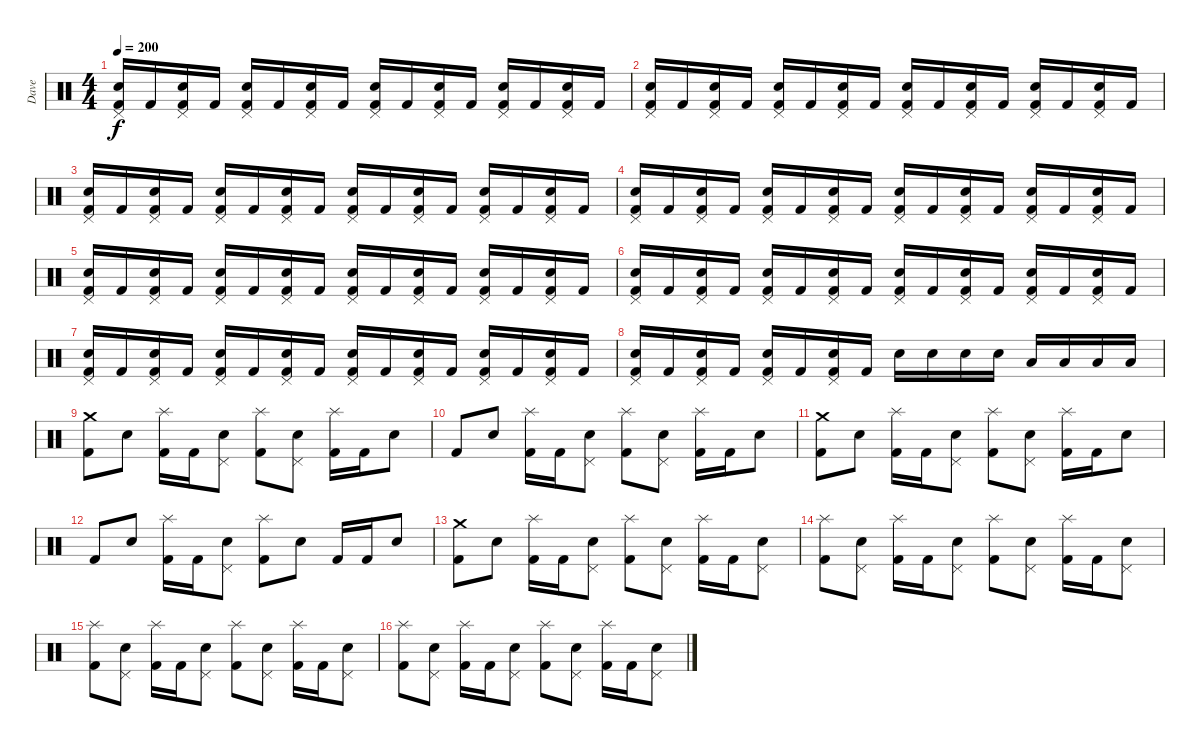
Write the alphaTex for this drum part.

\track ("Dave" "Dave") {instrument percussion}
\staff {score}
\articulation defaults
\ts (4 4)
\tempo 200
\clef neutral
\ks c
("Snare (hit) 2" "Pedal Hi-Hat (hit)" "Kick (hit) 2").16{dy f} "Kick (hit) 2".16 ("Snare (hit) 2" "Pedal Hi-Hat (hit)" "Kick (hit) 2").16 "Kick (hit) 2".16 ("Snare (hit) 2" "Pedal Hi-Hat (hit)" "Kick (hit) 2").16 "Kick (hit) 2".16 ("Snare (hit) 2" "Pedal Hi-Hat (hit)" "Kick (hit) 2").16 "Kick (hit) 2".16 ("Snare (hit) 2" "Pedal Hi-Hat (hit)" "Kick (hit) 2").16 "Kick (hit) 2".16 ("Snare (hit) 2" "Pedal Hi-Hat (hit)" "Kick (hit) 2").16 "Kick (hit) 2".16 ("Snare (hit) 2" "Pedal Hi-Hat (hit)" "Kick (hit) 2").16 "Kick (hit) 2".16 ("Snare (hit) 2" "Pedal Hi-Hat (hit)" "Kick (hit) 2").16 "Kick (hit) 2".16 |
("Snare (hit) 2" "Pedal Hi-Hat (hit)" "Kick (hit) 2").16 "Kick (hit) 2".16 ("Snare (hit) 2" "Pedal Hi-Hat (hit)" "Kick (hit) 2").16 "Kick (hit) 2".16 ("Snare (hit) 2" "Pedal Hi-Hat (hit)" "Kick (hit) 2").16 "Kick (hit) 2".16 ("Snare (hit) 2" "Pedal Hi-Hat (hit)" "Kick (hit) 2").16 "Kick (hit) 2".16 ("Snare (hit) 2" "Pedal Hi-Hat (hit)" "Kick (hit) 2").16 "Kick (hit) 2".16 ("Snare (hit) 2" "Pedal Hi-Hat (hit)" "Kick (hit) 2").16 "Kick (hit) 2".16 ("Snare (hit) 2" "Pedal Hi-Hat (hit)" "Kick (hit) 2").16 "Kick (hit) 2".16 ("Snare (hit) 2" "Pedal Hi-Hat (hit)" "Kick (hit) 2").16 "Kick (hit) 2".16 |
("Snare (hit) 2" "Pedal Hi-Hat (hit)" "Kick (hit) 2").16 "Kick (hit) 2".16 ("Snare (hit) 2" "Pedal Hi-Hat (hit)" "Kick (hit) 2").16 "Kick (hit) 2".16 ("Snare (hit) 2" "Pedal Hi-Hat (hit)" "Kick (hit) 2").16 "Kick (hit) 2".16 ("Snare (hit) 2" "Pedal Hi-Hat (hit)" "Kick (hit) 2").16 "Kick (hit) 2".16 ("Snare (hit) 2" "Pedal Hi-Hat (hit)" "Kick (hit) 2").16 "Kick (hit) 2".16 ("Snare (hit) 2" "Pedal Hi-Hat (hit)" "Kick (hit) 2").16 "Kick (hit) 2".16 ("Snare (hit) 2" "Pedal Hi-Hat (hit)" "Kick (hit) 2").16 "Kick (hit) 2".16 ("Snare (hit) 2" "Pedal Hi-Hat (hit)" "Kick (hit) 2").16 "Kick (hit) 2".16 |
("Snare (hit) 2" "Pedal Hi-Hat (hit)" "Kick (hit) 2").16 "Kick (hit) 2".16 ("Snare (hit) 2" "Pedal Hi-Hat (hit)" "Kick (hit) 2").16 "Kick (hit) 2".16 ("Snare (hit) 2" "Pedal Hi-Hat (hit)" "Kick (hit) 2").16 "Kick (hit) 2".16 ("Snare (hit) 2" "Pedal Hi-Hat (hit)" "Kick (hit) 2").16 "Kick (hit) 2".16 ("Snare (hit) 2" "Pedal Hi-Hat (hit)" "Kick (hit) 2").16 "Kick (hit) 2".16 ("Snare (hit) 2" "Pedal Hi-Hat (hit)" "Kick (hit) 2").16 "Kick (hit) 2".16 ("Snare (hit) 2" "Pedal Hi-Hat (hit)" "Kick (hit) 2").16 "Kick (hit) 2".16 ("Snare (hit) 2" "Pedal Hi-Hat (hit)" "Kick (hit) 2").16 "Kick (hit) 2".16 |
("Snare (hit) 2" "Pedal Hi-Hat (hit)" "Kick (hit) 2").16 "Kick (hit) 2".16 ("Snare (hit) 2" "Pedal Hi-Hat (hit)" "Kick (hit) 2").16 "Kick (hit) 2".16 ("Snare (hit) 2" "Pedal Hi-Hat (hit)" "Kick (hit) 2").16 "Kick (hit) 2".16 ("Snare (hit) 2" "Pedal Hi-Hat (hit)" "Kick (hit) 2").16 "Kick (hit) 2".16 ("Snare (hit) 2" "Pedal Hi-Hat (hit)" "Kick (hit) 2").16 "Kick (hit) 2".16 ("Snare (hit) 2" "Pedal Hi-Hat (hit)" "Kick (hit) 2").16 "Kick (hit) 2".16 ("Snare (hit) 2" "Pedal Hi-Hat (hit)" "Kick (hit) 2").16 "Kick (hit) 2".16 ("Snare (hit) 2" "Pedal Hi-Hat (hit)" "Kick (hit) 2").16 "Kick (hit) 2".16 |
("Snare (hit) 2" "Pedal Hi-Hat (hit)" "Kick (hit) 2").16 "Kick (hit) 2".16 ("Snare (hit) 2" "Pedal Hi-Hat (hit)" "Kick (hit) 2").16 "Kick (hit) 2".16 ("Snare (hit) 2" "Pedal Hi-Hat (hit)" "Kick (hit) 2").16 "Kick (hit) 2".16 ("Snare (hit) 2" "Pedal Hi-Hat (hit)" "Kick (hit) 2").16 "Kick (hit) 2".16 ("Snare (hit) 2" "Pedal Hi-Hat (hit)" "Kick (hit) 2").16 "Kick (hit) 2".16 ("Snare (hit) 2" "Pedal Hi-Hat (hit)" "Kick (hit) 2").16 "Kick (hit) 2".16 ("Snare (hit) 2" "Pedal Hi-Hat (hit)" "Kick (hit) 2").16 "Kick (hit) 2".16 ("Snare (hit) 2" "Pedal Hi-Hat (hit)" "Kick (hit) 2").16 "Kick (hit) 2".16 |
("Snare (hit) 2" "Pedal Hi-Hat (hit)" "Kick (hit) 2").16 "Kick (hit) 2".16 ("Snare (hit) 2" "Pedal Hi-Hat (hit)" "Kick (hit) 2").16 "Kick (hit) 2".16 ("Snare (hit) 2" "Pedal Hi-Hat (hit)" "Kick (hit) 2").16 "Kick (hit) 2".16 ("Snare (hit) 2" "Pedal Hi-Hat (hit)" "Kick (hit) 2").16 "Kick (hit) 2".16 ("Snare (hit) 2" "Pedal Hi-Hat (hit)" "Kick (hit) 2").16 "Kick (hit) 2".16 ("Snare (hit) 2" "Pedal Hi-Hat (hit)" "Kick (hit) 2").16 "Kick (hit) 2".16 ("Snare (hit) 2" "Pedal Hi-Hat (hit)" "Kick (hit) 2").16 "Kick (hit) 2".16 ("Snare (hit) 2" "Pedal Hi-Hat (hit)" "Kick (hit) 2").16 "Kick (hit) 2".16 |
("Snare (hit) 2" "Pedal Hi-Hat (hit)" "Kick (hit) 2").16 "Kick (hit) 2".16 ("Snare (hit) 2" "Pedal Hi-Hat (hit)" "Kick (hit) 2").16 "Kick (hit) 2".16 ("Snare (hit) 2" "Pedal Hi-Hat (hit)" "Kick (hit) 2").16 "Kick (hit) 2".16 ("Snare (hit) 2" "Pedal Hi-Hat (hit)" "Kick (hit) 2").16 "Kick (hit) 2".16 "Snare (hit) 2".16 "Snare (hit) 2".16 "Snare (hit) 2".16 "Snare (hit) 2".16 "Low Floor Tom (hit)".16 "Low Floor Tom (hit)".16 "Low Floor Tom (hit)".16 "Low Floor Tom (hit)".16 |
("Crash medium (hit)" "Kick (hit) 2").8 "Snare (hit) 2".8 ("Splash (hit)" "Kick (hit) 2").16 "Kick (hit) 2".16 ("Pedal Hi-Hat (hit)" "Snare (hit) 2").8 ("Splash (hit)" "Kick (hit) 2").8 ("Pedal Hi-Hat (hit)" "Snare (hit) 2").8 ("Splash (hit)" "Kick (hit) 2").16 "Kick (hit) 2".16 "Snare (hit) 2".8 |
"Kick (hit) 2".8 "Snare (hit) 2".8 ("Splash (hit)" "Kick (hit) 2").16 "Kick (hit) 2".16 ("Pedal Hi-Hat (hit)" "Snare (hit) 2").8 ("Splash (hit)" "Kick (hit) 2").8 ("Pedal Hi-Hat (hit)" "Snare (hit) 2").8 ("Splash (hit)" "Kick (hit) 2").16 "Kick (hit) 2".16 "Snare (hit) 2".8 |
("Crash medium (hit)" "Kick (hit) 2").8 "Snare (hit) 2".8 ("Splash (hit)" "Kick (hit) 2").16 "Kick (hit) 2".16 ("Pedal Hi-Hat (hit)" "Snare (hit) 2").8 ("Splash (hit)" "Kick (hit) 2").8 ("Pedal Hi-Hat (hit)" "Snare (hit) 2").8 ("Splash (hit)" "Kick (hit) 2").16 "Kick (hit) 2".16 "Snare (hit) 2".8 |
"Kick (hit) 2".8 "Snare (hit) 2".8 ("Splash (hit)" "Kick (hit) 2").16 "Kick (hit) 2".16 ("Pedal Hi-Hat (hit)" "Snare (hit) 2").8 ("Splash (hit)" "Kick (hit) 2").8 "Snare (hit) 2".8 "Kick (hit) 2".16 "Kick (hit) 2".16 "Snare (hit) 2".8 |
("Crash medium (hit)" "Kick (hit) 2").8 "Snare (hit) 2".8 ("Splash (hit)" "Kick (hit) 2").16 "Kick (hit) 2".16 ("Pedal Hi-Hat (hit)" "Snare (hit) 2").8 ("Splash (hit)" "Kick (hit) 2").8 ("Pedal Hi-Hat (hit)" "Snare (hit) 2").8 ("Splash (hit)" "Kick (hit) 2").16 "Kick (hit) 2".16 ("Pedal Hi-Hat (hit)" "Snare (hit) 2").8 |
("Splash (hit)" "Kick (hit) 2").8 ("Pedal Hi-Hat (hit)" "Snare (hit) 2").8 ("Splash (hit)" "Kick (hit) 2").16 "Kick (hit) 2".16 ("Pedal Hi-Hat (hit)" "Snare (hit) 2").8 ("Splash (hit)" "Kick (hit) 2").8 ("Pedal Hi-Hat (hit)" "Snare (hit) 2").8 ("Splash (hit)" "Kick (hit) 2").16 "Kick (hit) 2".16 ("Pedal Hi-Hat (hit)" "Snare (hit) 2").8 |
("Splash (hit)" "Kick (hit) 2").8 ("Pedal Hi-Hat (hit)" "Snare (hit) 2").8 ("Splash (hit)" "Kick (hit) 2").16 "Kick (hit) 2".16 ("Pedal Hi-Hat (hit)" "Snare (hit) 2").8 ("Splash (hit)" "Kick (hit) 2").8 ("Pedal Hi-Hat (hit)" "Snare (hit) 2").8 ("Splash (hit)" "Kick (hit) 2").16 "Kick (hit) 2".16 ("Pedal Hi-Hat (hit)" "Snare (hit) 2").8 |
("Splash (hit)" "Kick (hit) 2").8 ("Pedal Hi-Hat (hit)" "Snare (hit) 2").8 ("Splash (hit)" "Kick (hit) 2").16 "Kick (hit) 2".16 ("Pedal Hi-Hat (hit)" "Snare (hit) 2").8 ("Splash (hit)" "Kick (hit) 2").8 ("Pedal Hi-Hat (hit)" "Snare (hit) 2").8 ("Splash (hit)" "Kick (hit) 2").16 "Kick (hit) 2".16 ("Pedal Hi-Hat (hit)" "Snare (hit) 2").8
